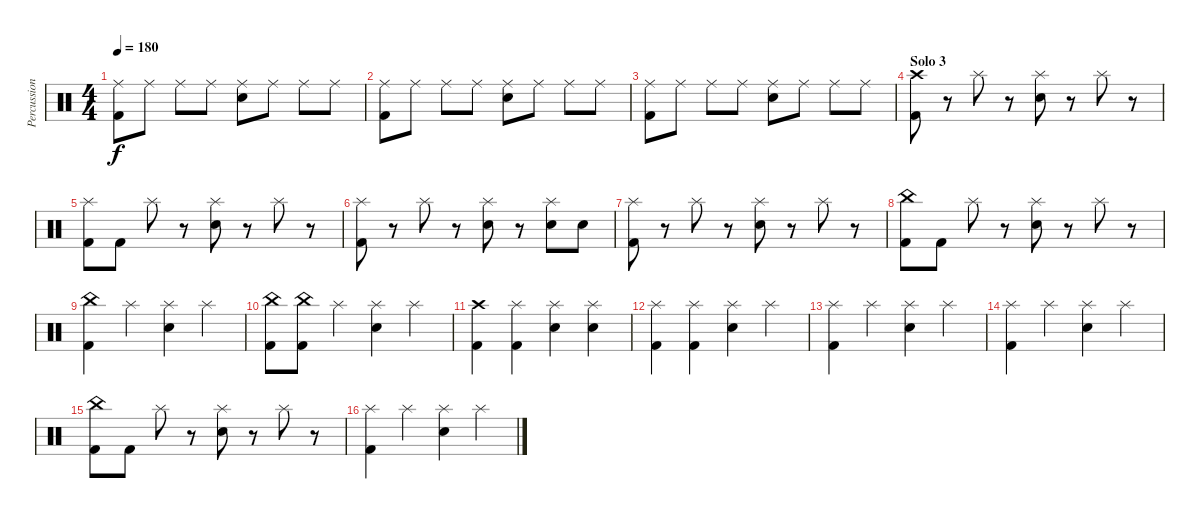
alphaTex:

\track ("Percussion" "Percussion") {instrument percussion}
\staff {score}
\articulation defaults
\ts (4 4)
\tempo 180
\clef neutral
\ks c
("Ride (middle)" "Kick (hit) 2").8{dy f} "Ride (middle)".8 "Ride (middle)".8 "Ride (middle)".8 ("Ride (middle)" "Snare (hit) 2").8 "Ride (middle)".8 "Ride (middle)".8 "Ride (middle)".8 |
("Ride (middle)" "Kick (hit) 2").8 "Ride (middle)".8 "Ride (middle)".8 "Ride (middle)".8 ("Ride (middle)" "Snare (hit) 2").8 "Ride (middle)".8 "Ride (middle)".8 "Ride (middle)".8 |
("Ride (middle)" "Kick (hit) 2").8 "Ride (middle)".8 "Ride (middle)".8 "Ride (middle)".8 ("Ride (middle)" "Snare (hit) 2").8 "Ride (middle)".8 "Ride (middle)".8 "Ride (middle)".8 |
\section ("" "Solo 3")
("Crash high (hit)" "Kick (hit) 2").8 r.8 "Splash (hit)".8 r.8 ("Splash (hit)" "Snare (hit) 2").8 r.8 "Splash (hit)".8 r.8 |
("Splash (hit)" "Kick (hit) 2").8 "Kick (hit) 2".8 "Splash (hit)".8 r.8 ("Splash (hit)" "Snare (hit) 2").8 r.8 "Splash (hit)".8 r.8 |
("Splash (hit)" "Kick (hit) 2").8 r.8 "Splash (hit)".8 r.8 ("Splash (hit)" "Snare (hit) 2").8 r.8 ("Splash (hit)" "Snare (hit) 2").8 "Snare (hit) 2".8 |
("Splash (hit)" "Kick (hit) 2").8 r.8 "Splash (hit)".8 r.8 ("Splash (hit)" "Snare (hit) 2").8 r.8 "Splash (hit)".8 r.8 |
("China (hit)" "Kick (hit) 2").8 "Kick (hit) 2".8 "Splash (hit)".8 r.8 ("Splash (hit)" "Snare (hit) 2").8 r.8 "Splash (hit)".8 r.8 |
("China (hit)" "Kick (hit) 2").4 "Splash (hit)".4 ("Splash (hit)" "Snare (hit) 2").4 "Splash (hit)".4 |
("China (hit)" "Kick (hit) 2").8 ("China (hit)" "Kick (hit) 2").8 "Splash (hit)".4 ("Splash (hit)" "Snare (hit) 2").4 "Splash (hit)".4 |
("Crash high (hit)" "Kick (hit) 2").4 ("Splash (hit)" "Kick (hit) 2").4 ("Splash (hit)" "Snare (hit) 2").4 ("Splash (hit)" "Snare (hit) 2").4 |
("Splash (hit)" "Kick (hit) 2").4 ("Splash (hit)" "Kick (hit) 2").4 ("Splash (hit)" "Snare (hit) 2").4 "Splash (hit)".4 |
("Splash (hit)" "Kick (hit) 2").4 "Splash (hit)".4 ("Splash (hit)" "Snare (hit) 2").4 "Splash (hit)".4 |
("Splash (hit)" "Kick (hit) 2").4 "Splash (hit)".4 ("Splash (hit)" "Snare (hit) 2").4 "Splash (hit)".4 |
("China (hit)" "Kick (hit) 2").8 "Kick (hit) 2".8 "Splash (hit)".8 r.8 ("Splash (hit)" "Snare (hit) 2").8 r.8 "Splash (hit)".8 r.8 |
("Splash (hit)" "Kick (hit) 2").4 "Splash (hit)".4 ("Splash (hit)" "Snare (hit) 2").4 "Splash (hit)".4
